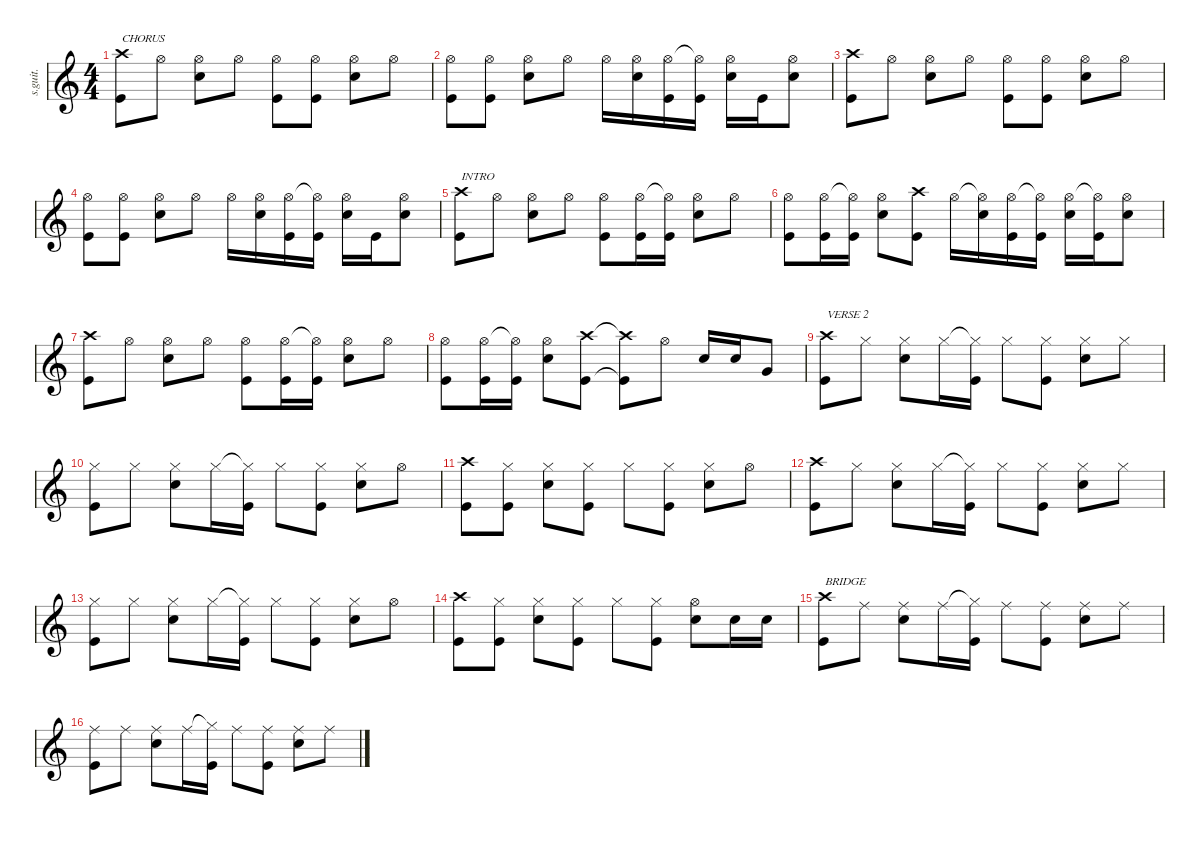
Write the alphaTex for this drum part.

\defaultSystemsLayout 4
\hideDynamics
\bracketExtendMode nobrackets
\track ("Phil Selway" "s.guit.") {instrument percussion}
\staff {score}
\articulation defaults
\ts (4 4)
\tempo (88 hide)
\clef g2
\ks c
("Crash high (hit)" "Kick (hit)").8{txt "CHORUS" lyrics (0 "") lyrics (1 "") lyrics (2 "") lyrics (3 "") lyrics (4 "") dy f} "Hi-Hat (open)".8{lyrics (0 "") lyrics (1 "") lyrics (2 "") lyrics (3 "") lyrics (4 "")} ("Hi-Hat (open)" "Snare (hit) 2").8{lyrics (0 "") lyrics (1 "") lyrics (2 "") lyrics (3 "") lyrics (4 "")} "Hi-Hat (open)".8{lyrics (0 "") lyrics (1 "") lyrics (2 "") lyrics (3 "") lyrics (4 "")} ("Hi-Hat (open)" "Kick (hit)").8{lyrics (0 "") lyrics (1 "") lyrics (2 "") lyrics (3 "") lyrics (4 "")} ("Hi-Hat (open)" "Kick (hit)").8{lyrics (0 "") lyrics (1 "") lyrics (2 "") lyrics (3 "") lyrics (4 "")} ("Hi-Hat (open)" "Snare (hit) 2").8{lyrics (0 "") lyrics (1 "") lyrics (2 "") lyrics (3 "") lyrics (4 "")} "Hi-Hat (open)".8{lyrics (0 "") lyrics (1 "") lyrics (2 "") lyrics (3 "") lyrics (4 "")} |
("Hi-Hat (open)" "Kick (hit)").8{lyrics (0 "") lyrics (1 "") lyrics (2 "") lyrics (3 "") lyrics (4 "")} ("Hi-Hat (open)" "Kick (hit)").8{lyrics (0 "") lyrics (1 "") lyrics (2 "") lyrics (3 "") lyrics (4 "")} ("Hi-Hat (open)" "Snare (hit) 2").8{lyrics (0 "") lyrics (1 "") lyrics (2 "") lyrics (3 "") lyrics (4 "")} "Hi-Hat (open)".8{lyrics (0 "") lyrics (1 "") lyrics (2 "") lyrics (3 "") lyrics (4 "")} "Hi-Hat (open)".16{lyrics (0 "") lyrics (1 "") lyrics (2 "") lyrics (3 "") lyrics (4 "")} ("Hi-Hat (open)" "Snare (hit) 2").16{lyrics (0 "") lyrics (1 "") lyrics (2 "") lyrics (3 "") lyrics (4 "")} ("Hi-Hat (open)" "Kick (hit)").16{lyrics (0 "") lyrics (1 "") lyrics (2 "") lyrics (3 "") lyrics (4 "")} ("Hi-Hat (open)"{t} "Kick (hit)").16{lyrics (0 "") lyrics (1 "") lyrics (2 "") lyrics (3 "") lyrics (4 "")} ("Hi-Hat (open)" "Snare (hit) 2").16{lyrics (0 "") lyrics (1 "") lyrics (2 "") lyrics (3 "") lyrics (4 "")} "Kick (hit)".16{lyrics (0 "") lyrics (1 "") lyrics (2 "") lyrics (3 "") lyrics (4 "") dy fff} ("Hi-Hat (open)" "Snare (hit) 2").8{lyrics (0 "") lyrics (1 "") lyrics (2 "") lyrics (3 "") lyrics (4 "") dy f} |
("Crash high (hit)" "Kick (hit)").8{lyrics (0 "") lyrics (1 "") lyrics (2 "") lyrics (3 "") lyrics (4 "")} "Hi-Hat (open)".8{lyrics (0 "") lyrics (1 "") lyrics (2 "") lyrics (3 "") lyrics (4 "")} ("Hi-Hat (open)" "Snare (hit) 2").8{lyrics (0 "") lyrics (1 "") lyrics (2 "") lyrics (3 "") lyrics (4 "")} "Hi-Hat (open)".8{lyrics (0 "") lyrics (1 "") lyrics (2 "") lyrics (3 "") lyrics (4 "")} ("Hi-Hat (open)" "Kick (hit)").8{lyrics (0 "") lyrics (1 "") lyrics (2 "") lyrics (3 "") lyrics (4 "")} ("Hi-Hat (open)" "Kick (hit)").8{lyrics (0 "") lyrics (1 "") lyrics (2 "") lyrics (3 "") lyrics (4 "")} ("Hi-Hat (open)" "Snare (hit) 2").8{lyrics (0 "") lyrics (1 "") lyrics (2 "") lyrics (3 "") lyrics (4 "")} "Hi-Hat (open)".8{lyrics (0 "") lyrics (1 "") lyrics (2 "") lyrics (3 "") lyrics (4 "")} |
("Hi-Hat (open)" "Kick (hit)").8{lyrics (0 "") lyrics (1 "") lyrics (2 "") lyrics (3 "") lyrics (4 "")} ("Hi-Hat (open)" "Kick (hit)").8{lyrics (0 "") lyrics (1 "") lyrics (2 "") lyrics (3 "") lyrics (4 "")} ("Hi-Hat (open)" "Snare (hit) 2").8{lyrics (0 "") lyrics (1 "") lyrics (2 "") lyrics (3 "") lyrics (4 "")} "Hi-Hat (open)".8{lyrics (0 "") lyrics (1 "") lyrics (2 "") lyrics (3 "") lyrics (4 "")} "Hi-Hat (open)".16{lyrics (0 "") lyrics (1 "") lyrics (2 "") lyrics (3 "") lyrics (4 "")} ("Hi-Hat (open)" "Snare (hit) 2").16{lyrics (0 "") lyrics (1 "") lyrics (2 "") lyrics (3 "") lyrics (4 "")} ("Hi-Hat (open)" "Kick (hit)").16{lyrics (0 "") lyrics (1 "") lyrics (2 "") lyrics (3 "") lyrics (4 "")} ("Hi-Hat (open)"{t} "Kick (hit)").16{lyrics (0 "") lyrics (1 "") lyrics (2 "") lyrics (3 "") lyrics (4 "")} ("Hi-Hat (open)" "Snare (hit) 2").16{lyrics (0 "") lyrics (1 "") lyrics (2 "") lyrics (3 "") lyrics (4 "")} "Kick (hit)".16{lyrics (0 "") lyrics (1 "") lyrics (2 "") lyrics (3 "") lyrics (4 "") dy fff} ("Hi-Hat (open)" "Snare (hit) 2").8{lyrics (0 "") lyrics (1 "") lyrics (2 "") lyrics (3 "") lyrics (4 "") dy f} |
("Crash high (hit)" "Kick (hit)").8{txt "INTRO" lyrics (0 "") lyrics (1 "") lyrics (2 "") lyrics (3 "") lyrics (4 "")} "Hi-Hat (open)".8{lyrics (0 "") lyrics (1 "") lyrics (2 "") lyrics (3 "") lyrics (4 "")} ("Hi-Hat (open)" "Snare (hit) 2").8{lyrics (0 "") lyrics (1 "") lyrics (2 "") lyrics (3 "") lyrics (4 "")} "Hi-Hat (open)".8{lyrics (0 "") lyrics (1 "") lyrics (2 "") lyrics (3 "") lyrics (4 "")} ("Hi-Hat (open)" "Kick (hit)").8{lyrics (0 "") lyrics (1 "") lyrics (2 "") lyrics (3 "") lyrics (4 "")} ("Hi-Hat (open)" "Kick (hit)").16{lyrics (0 "") lyrics (1 "") lyrics (2 "") lyrics (3 "") lyrics (4 "")} ("Hi-Hat (open)"{t} "Kick (hit)").16{lyrics (0 "") lyrics (1 "") lyrics (2 "") lyrics (3 "") lyrics (4 "")} ("Hi-Hat (open)" "Snare (hit) 2").8{lyrics (0 "") lyrics (1 "") lyrics (2 "") lyrics (3 "") lyrics (4 "")} "Hi-Hat (open)".8{lyrics (0 "") lyrics (1 "") lyrics (2 "") lyrics (3 "") lyrics (4 "")} |
("Hi-Hat (open)" "Kick (hit)").8{lyrics (0 "") lyrics (1 "") lyrics (2 "") lyrics (3 "") lyrics (4 "")} ("Hi-Hat (open)" "Kick (hit)").16{lyrics (0 "") lyrics (1 "") lyrics (2 "") lyrics (3 "") lyrics (4 "")} ("Hi-Hat (open)"{t} "Kick (hit)").16{lyrics (0 "") lyrics (1 "") lyrics (2 "") lyrics (3 "") lyrics (4 "")} ("Hi-Hat (open)" "Snare (hit) 2").8{lyrics (0 "") lyrics (1 "") lyrics (2 "") lyrics (3 "") lyrics (4 "")} ("Crash high (hit)" "Kick (hit)").8{lyrics (0 "") lyrics (1 "") lyrics (2 "") lyrics (3 "") lyrics (4 "")} "Hi-Hat (open)".16{lyrics (0 "") lyrics (1 "") lyrics (2 "") lyrics (3 "") lyrics (4 "")} ("Hi-Hat (open)"{t} "Snare (hit) 2").16{lyrics (0 "") lyrics (1 "") lyrics (2 "") lyrics (3 "") lyrics (4 "")} ("Hi-Hat (open)" "Kick (hit)").16{lyrics (0 "") lyrics (1 "") lyrics (2 "") lyrics (3 "") lyrics (4 "")} ("Hi-Hat (open)"{t} "Kick (hit)").16{lyrics (0 "") lyrics (1 "") lyrics (2 "") lyrics (3 "") lyrics (4 "")} ("Hi-Hat (open)" "Snare (hit) 2").16{lyrics (0 "") lyrics (1 "") lyrics (2 "") lyrics (3 "") lyrics (4 "")} ("Hi-Hat (open)"{t} "Kick (hit)").16{lyrics (0 "") lyrics (1 "") lyrics (2 "") lyrics (3 "") lyrics (4 "")} ("Hi-Hat (open)" "Snare (hit) 2").8{lyrics (0 "") lyrics (1 "") lyrics (2 "") lyrics (3 "") lyrics (4 "")} |
("Crash high (hit)" "Kick (hit)").8{lyrics (0 "") lyrics (1 "") lyrics (2 "") lyrics (3 "") lyrics (4 "")} "Hi-Hat (open)".8{lyrics (0 "") lyrics (1 "") lyrics (2 "") lyrics (3 "") lyrics (4 "")} ("Hi-Hat (open)" "Snare (hit) 2").8{lyrics (0 "") lyrics (1 "") lyrics (2 "") lyrics (3 "") lyrics (4 "")} "Hi-Hat (open)".8{lyrics (0 "") lyrics (1 "") lyrics (2 "") lyrics (3 "") lyrics (4 "")} ("Hi-Hat (open)" "Kick (hit)").8{lyrics (0 "") lyrics (1 "") lyrics (2 "") lyrics (3 "") lyrics (4 "")} ("Hi-Hat (open)" "Kick (hit)").16{lyrics (0 "") lyrics (1 "") lyrics (2 "") lyrics (3 "") lyrics (4 "")} ("Hi-Hat (open)"{t} "Kick (hit)").16{lyrics (0 "") lyrics (1 "") lyrics (2 "") lyrics (3 "") lyrics (4 "")} ("Hi-Hat (open)" "Snare (hit) 2").8{lyrics (0 "") lyrics (1 "") lyrics (2 "") lyrics (3 "") lyrics (4 "")} "Hi-Hat (open)".8{lyrics (0 "") lyrics (1 "") lyrics (2 "") lyrics (3 "") lyrics (4 "")} |
("Hi-Hat (open)" "Kick (hit)").8{lyrics (0 "") lyrics (1 "") lyrics (2 "") lyrics (3 "") lyrics (4 "")} ("Hi-Hat (open)" "Kick (hit)").16{lyrics (0 "") lyrics (1 "") lyrics (2 "") lyrics (3 "") lyrics (4 "")} ("Hi-Hat (open)"{t} "Kick (hit)").16{lyrics (0 "") lyrics (1 "") lyrics (2 "") lyrics (3 "") lyrics (4 "")} ("Hi-Hat (open)" "Snare (hit) 2").8{lyrics (0 "") lyrics (1 "") lyrics (2 "") lyrics (3 "") lyrics (4 "")} ("Crash high (hit)" "Kick (hit)").8{lyrics (0 "") lyrics (1 "") lyrics (2 "") lyrics (3 "") lyrics (4 "")} ("Crash high (hit)"{t} "Kick (hit)"{t}).8{lyrics (0 "") lyrics (1 "") lyrics (2 "") lyrics (3 "") lyrics (4 "")} "Hi-Hat (open)".8{lyrics (0 "") lyrics (1 "") lyrics (2 "") lyrics (3 "") lyrics (4 "")} "Snare (hit) 2".16{lyrics (0 "") lyrics (1 "") lyrics (2 "") lyrics (3 "") lyrics (4 "")} "Snare (hit) 2".16{lyrics (0 "") lyrics (1 "") lyrics (2 "") lyrics (3 "") lyrics (4 "")} "Very Low Tom (hit)".8{lyrics (0 "") lyrics (1 "") lyrics (2 "") lyrics (3 "") lyrics (4 "")} |
("Crash high (hit)" "Kick (hit)").8{txt "VERSE 2" lyrics (0 "") lyrics (1 "") lyrics (2 "") lyrics (3 "") lyrics (4 "")} "Hi-Hat (closed)".8{lyrics (0 "") lyrics (1 "") lyrics (2 "") lyrics (3 "") lyrics (4 "")} ("Hi-Hat (closed)" "Snare (hit) 2").8{lyrics (0 "") lyrics (1 "") lyrics (2 "") lyrics (3 "") lyrics (4 "")} "Hi-Hat (closed)".16{lyrics (0 "") lyrics (1 "") lyrics (2 "") lyrics (3 "") lyrics (4 "")} ("Hi-Hat (closed)"{t} "Kick (hit)").16{lyrics (0 "") lyrics (1 "") lyrics (2 "") lyrics (3 "") lyrics (4 "")} "Hi-Hat (closed)".8{lyrics (0 "") lyrics (1 "") lyrics (2 "") lyrics (3 "") lyrics (4 "")} ("Hi-Hat (closed)" "Kick (hit)").8{lyrics (0 "") lyrics (1 "") lyrics (2 "") lyrics (3 "") lyrics (4 "")} ("Hi-Hat (closed)" "Snare (hit) 2").8{lyrics (0 "") lyrics (1 "") lyrics (2 "") lyrics (3 "") lyrics (4 "")} "Hi-Hat (closed)".8{lyrics (0 "") lyrics (1 "") lyrics (2 "") lyrics (3 "") lyrics (4 "")} |
("Hi-Hat (closed)" "Kick (hit)").8{lyrics (0 "") lyrics (1 "") lyrics (2 "") lyrics (3 "") lyrics (4 "")} "Hi-Hat (closed)".8{lyrics (0 "") lyrics (1 "") lyrics (2 "") lyrics (3 "") lyrics (4 "")} ("Hi-Hat (closed)" "Snare (hit) 2").8{lyrics (0 "") lyrics (1 "") lyrics (2 "") lyrics (3 "") lyrics (4 "")} "Hi-Hat (closed)".16{lyrics (0 "") lyrics (1 "") lyrics (2 "") lyrics (3 "") lyrics (4 "")} ("Hi-Hat (closed)"{t} "Kick (hit)").16{lyrics (0 "") lyrics (1 "") lyrics (2 "") lyrics (3 "") lyrics (4 "")} "Hi-Hat (closed)".8{lyrics (0 "") lyrics (1 "") lyrics (2 "") lyrics (3 "") lyrics (4 "")} ("Hi-Hat (closed)" "Kick (hit)").8{lyrics (0 "") lyrics (1 "") lyrics (2 "") lyrics (3 "") lyrics (4 "")} ("Hi-Hat (closed)" "Snare (hit) 2").8{lyrics (0 "") lyrics (1 "") lyrics (2 "") lyrics (3 "") lyrics (4 "")} "Hi-Hat (open)".8{lyrics (0 "") lyrics (1 "") lyrics (2 "") lyrics (3 "") lyrics (4 "")} |
("Crash high (hit)" "Kick (hit)").8{lyrics (0 "") lyrics (1 "") lyrics (2 "") lyrics (3 "") lyrics (4 "")} ("Hi-Hat (closed)" "Kick (hit)").8{lyrics (0 "") lyrics (1 "") lyrics (2 "") lyrics (3 "") lyrics (4 "")} ("Hi-Hat (closed)" "Snare (hit) 2").8{lyrics (0 "") lyrics (1 "") lyrics (2 "") lyrics (3 "") lyrics (4 "")} ("Hi-Hat (closed)" "Kick (hit)").8{lyrics (0 "") lyrics (1 "") lyrics (2 "") lyrics (3 "") lyrics (4 "")} "Hi-Hat (closed)".8{lyrics (0 "") lyrics (1 "") lyrics (2 "") lyrics (3 "") lyrics (4 "")} ("Hi-Hat (closed)" "Kick (hit)").8{lyrics (0 "") lyrics (1 "") lyrics (2 "") lyrics (3 "") lyrics (4 "")} ("Hi-Hat (closed)" "Snare (hit) 2").8{lyrics (0 "") lyrics (1 "") lyrics (2 "") lyrics (3 "") lyrics (4 "")} "Hi-Hat (open)".8{lyrics (0 "") lyrics (1 "") lyrics (2 "") lyrics (3 "") lyrics (4 "")} |
("Crash high (hit)" "Kick (hit)").8{lyrics (0 "") lyrics (1 "") lyrics (2 "") lyrics (3 "") lyrics (4 "")} "Hi-Hat (closed)".8{lyrics (0 "") lyrics (1 "") lyrics (2 "") lyrics (3 "") lyrics (4 "")} ("Hi-Hat (closed)" "Snare (hit) 2").8{lyrics (0 "") lyrics (1 "") lyrics (2 "") lyrics (3 "") lyrics (4 "")} "Hi-Hat (closed)".16{lyrics (0 "") lyrics (1 "") lyrics (2 "") lyrics (3 "") lyrics (4 "")} ("Hi-Hat (closed)"{t} "Kick (hit)").16{lyrics (0 "") lyrics (1 "") lyrics (2 "") lyrics (3 "") lyrics (4 "")} "Hi-Hat (closed)".8{lyrics (0 "") lyrics (1 "") lyrics (2 "") lyrics (3 "") lyrics (4 "")} ("Hi-Hat (closed)" "Kick (hit)").8{lyrics (0 "") lyrics (1 "") lyrics (2 "") lyrics (3 "") lyrics (4 "")} ("Hi-Hat (closed)" "Snare (hit) 2").8{lyrics (0 "") lyrics (1 "") lyrics (2 "") lyrics (3 "") lyrics (4 "")} "Hi-Hat (closed)".8{lyrics (0 "") lyrics (1 "") lyrics (2 "") lyrics (3 "") lyrics (4 "")} |
("Hi-Hat (closed)" "Kick (hit)").8{lyrics (0 "") lyrics (1 "") lyrics (2 "") lyrics (3 "") lyrics (4 "")} "Hi-Hat (closed)".8{lyrics (0 "") lyrics (1 "") lyrics (2 "") lyrics (3 "") lyrics (4 "")} ("Hi-Hat (closed)" "Snare (hit) 2").8{lyrics (0 "") lyrics (1 "") lyrics (2 "") lyrics (3 "") lyrics (4 "")} "Hi-Hat (closed)".16{lyrics (0 "") lyrics (1 "") lyrics (2 "") lyrics (3 "") lyrics (4 "")} ("Hi-Hat (closed)"{t} "Kick (hit)").16{lyrics (0 "") lyrics (1 "") lyrics (2 "") lyrics (3 "") lyrics (4 "")} "Hi-Hat (closed)".8{lyrics (0 "") lyrics (1 "") lyrics (2 "") lyrics (3 "") lyrics (4 "")} ("Hi-Hat (closed)" "Kick (hit)").8{lyrics (0 "") lyrics (1 "") lyrics (2 "") lyrics (3 "") lyrics (4 "")} ("Hi-Hat (closed)" "Snare (hit) 2").8{lyrics (0 "") lyrics (1 "") lyrics (2 "") lyrics (3 "") lyrics (4 "")} "Hi-Hat (open)".8{lyrics (0 "") lyrics (1 "") lyrics (2 "") lyrics (3 "") lyrics (4 "")} |
("Crash high (hit)" "Kick (hit)").8{lyrics (0 "") lyrics (1 "") lyrics (2 "") lyrics (3 "") lyrics (4 "")} ("Hi-Hat (closed)" "Kick (hit)").8{lyrics (0 "") lyrics (1 "") lyrics (2 "") lyrics (3 "") lyrics (4 "")} ("Hi-Hat (closed)" "Snare (hit) 2").8{lyrics (0 "") lyrics (1 "") lyrics (2 "") lyrics (3 "") lyrics (4 "")} ("Hi-Hat (closed)" "Kick (hit)").8{lyrics (0 "") lyrics (1 "") lyrics (2 "") lyrics (3 "") lyrics (4 "")} "Hi-Hat (closed)".8{lyrics (0 "") lyrics (1 "") lyrics (2 "") lyrics (3 "") lyrics (4 "")} ("Hi-Hat (closed)" "Kick (hit)").8{lyrics (0 "") lyrics (1 "") lyrics (2 "") lyrics (3 "") lyrics (4 "")} ("Hi-Hat (open)" "Snare (hit) 2").8{lyrics (0 "") lyrics (1 "") lyrics (2 "") lyrics (3 "") lyrics (4 "")} "Snare (hit) 2".16{lyrics (0 "") lyrics (1 "") lyrics (2 "") lyrics (3 "") lyrics (4 "")} "Snare (hit) 2".16{lyrics (0 "") lyrics (1 "") lyrics (2 "") lyrics (3 "") lyrics (4 "")} |
("Crash high (hit)" "Kick (hit)").8{txt "BRIDGE" lyrics (0 "") lyrics (1 "") lyrics (2 "") lyrics (3 "") lyrics (4 "")} "Ride (middle)".8{lyrics (0 "") lyrics (1 "") lyrics (2 "") lyrics (3 "") lyrics (4 "")} ("Ride (middle)" "Snare (hit) 2").8{lyrics (0 "") lyrics (1 "") lyrics (2 "") lyrics (3 "") lyrics (4 "")} "Ride (middle)".16{lyrics (0 "") lyrics (1 "") lyrics (2 "") lyrics (3 "") lyrics (4 "")} ("Hi-Hat (closed)"{t} "Kick (hit)").16{lyrics (0 "") lyrics (1 "") lyrics (2 "") lyrics (3 "") lyrics (4 "")} "Ride (middle)".8{lyrics (0 "") lyrics (1 "") lyrics (2 "") lyrics (3 "") lyrics (4 "")} ("Ride (middle)" "Kick (hit)").8{lyrics (0 "") lyrics (1 "") lyrics (2 "") lyrics (3 "") lyrics (4 "")} ("Ride (middle)" "Snare (hit) 2").8{lyrics (0 "") lyrics (1 "") lyrics (2 "") lyrics (3 "") lyrics (4 "")} "Ride (middle)".8{lyrics (0 "") lyrics (1 "") lyrics (2 "") lyrics (3 "") lyrics (4 "")} |
("Ride (middle)" "Kick (hit)").8{lyrics (0 "") lyrics (1 "") lyrics (2 "") lyrics (3 "") lyrics (4 "")} "Ride (middle)".8{lyrics (0 "") lyrics (1 "") lyrics (2 "") lyrics (3 "") lyrics (4 "")} ("Ride (middle)" "Snare (hit) 2").8{lyrics (0 "") lyrics (1 "") lyrics (2 "") lyrics (3 "") lyrics (4 "")} "Ride (middle)".16{lyrics (0 "") lyrics (1 "") lyrics (2 "") lyrics (3 "") lyrics (4 "")} ("Hi-Hat (closed)"{t} "Kick (hit)").16{lyrics (0 "") lyrics (1 "") lyrics (2 "") lyrics (3 "") lyrics (4 "")} "Ride (middle)".8{lyrics (0 "") lyrics (1 "") lyrics (2 "") lyrics (3 "") lyrics (4 "")} ("Ride (middle)" "Kick (hit)").8{lyrics (0 "") lyrics (1 "") lyrics (2 "") lyrics (3 "") lyrics (4 "")} ("Ride (middle)" "Snare (hit) 2").8{lyrics (0 "") lyrics (1 "") lyrics (2 "") lyrics (3 "") lyrics (4 "")} "Ride (middle)".8{lyrics (0 "") lyrics (1 "") lyrics (2 "") lyrics (3 "") lyrics (4 "")}
